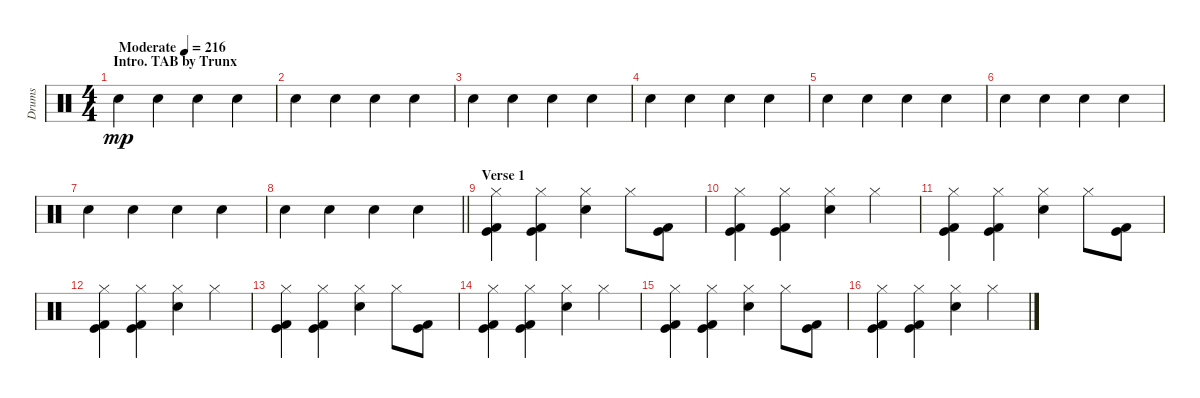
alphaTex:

\track ("Drums" "Drums") {instrument percussion}
\staff {score}
\articulation defaults
\ts (4 4)
\section ("" "Intro. TAB by Trunx")
\tempo (216 "Moderate")
\clef neutral
\ks c "Snare (hit) 2".4{dy mp} "Snare (hit) 2".4 "Snare (hit) 2".4 "Snare (hit) 2".4
|
"Snare (hit) 2".4 "Snare (hit) 2".4 "Snare (hit) 2".4 "Snare (hit) 2".4 |
"Snare (hit) 2".4 "Snare (hit) 2".4 "Snare (hit) 2".4 "Snare (hit) 2".4 |
"Snare (hit) 2".4 "Snare (hit) 2".4 "Snare (hit) 2".4 "Snare (hit) 2".4 |
"Snare (hit) 2".4 "Snare (hit) 2".4 "Snare (hit) 2".4 "Snare (hit) 2".4 |
"Snare (hit) 2".4 "Snare (hit) 2".4 "Snare (hit) 2".4 "Snare (hit) 2".4 |
"Snare (hit) 2".4 "Snare (hit) 2".4 "Snare (hit) 2".4 "Snare (hit) 2".4 |
\barLineRight lightlight "Snare (hit) 2".4 "Snare (hit) 2".4 "Snare (hit) 2".4 "Snare (hit) 2".4
|
\section ("" "Verse 1")
("Hi-Hat (closed)" "Kick (hit)" "Kick (hit) 2").4 ("Hi-Hat (closed)" "Kick (hit)" "Kick (hit) 2").4 ("Hi-Hat (closed)" "Snare (hit) 2").4 "Hi-Hat (closed)".8 ("Kick (hit)" "Kick (hit) 2").8 |
("Hi-Hat (closed)" "Kick (hit)" "Kick (hit) 2").4 ("Hi-Hat (closed)" "Kick (hit)" "Kick (hit) 2").4 ("Hi-Hat (closed)" "Snare (hit) 2").4 "Hi-Hat (closed)".4 |
("Hi-Hat (closed)" "Kick (hit)" "Kick (hit) 2").4 ("Hi-Hat (closed)" "Kick (hit)" "Kick (hit) 2").4 ("Hi-Hat (closed)" "Snare (hit) 2").4 "Hi-Hat (closed)".8 ("Kick (hit)" "Kick (hit) 2").8 |
("Hi-Hat (closed)" "Kick (hit)" "Kick (hit) 2").4 ("Hi-Hat (closed)" "Kick (hit)" "Kick (hit) 2").4 ("Hi-Hat (closed)" "Snare (hit) 2").4 "Hi-Hat (closed)".4 |
("Hi-Hat (closed)" "Kick (hit)" "Kick (hit) 2").4 ("Hi-Hat (closed)" "Kick (hit)" "Kick (hit) 2").4 ("Hi-Hat (closed)" "Snare (hit) 2").4 "Hi-Hat (closed)".8 ("Kick (hit)" "Kick (hit) 2").8 |
("Hi-Hat (closed)" "Kick (hit)" "Kick (hit) 2").4 ("Hi-Hat (closed)" "Kick (hit)" "Kick (hit) 2").4 ("Hi-Hat (closed)" "Snare (hit) 2").4 "Hi-Hat (closed)".4 |
("Hi-Hat (closed)" "Kick (hit)" "Kick (hit) 2").4 ("Hi-Hat (closed)" "Kick (hit)" "Kick (hit) 2").4 ("Hi-Hat (closed)" "Snare (hit) 2").4 "Hi-Hat (closed)".8 ("Kick (hit)" "Kick (hit) 2").8 |
("Hi-Hat (closed)" "Kick (hit)" "Kick (hit) 2").4 ("Hi-Hat (closed)" "Kick (hit)" "Kick (hit) 2").4 ("Hi-Hat (closed)" "Snare (hit) 2").4 "Hi-Hat (closed)".4
